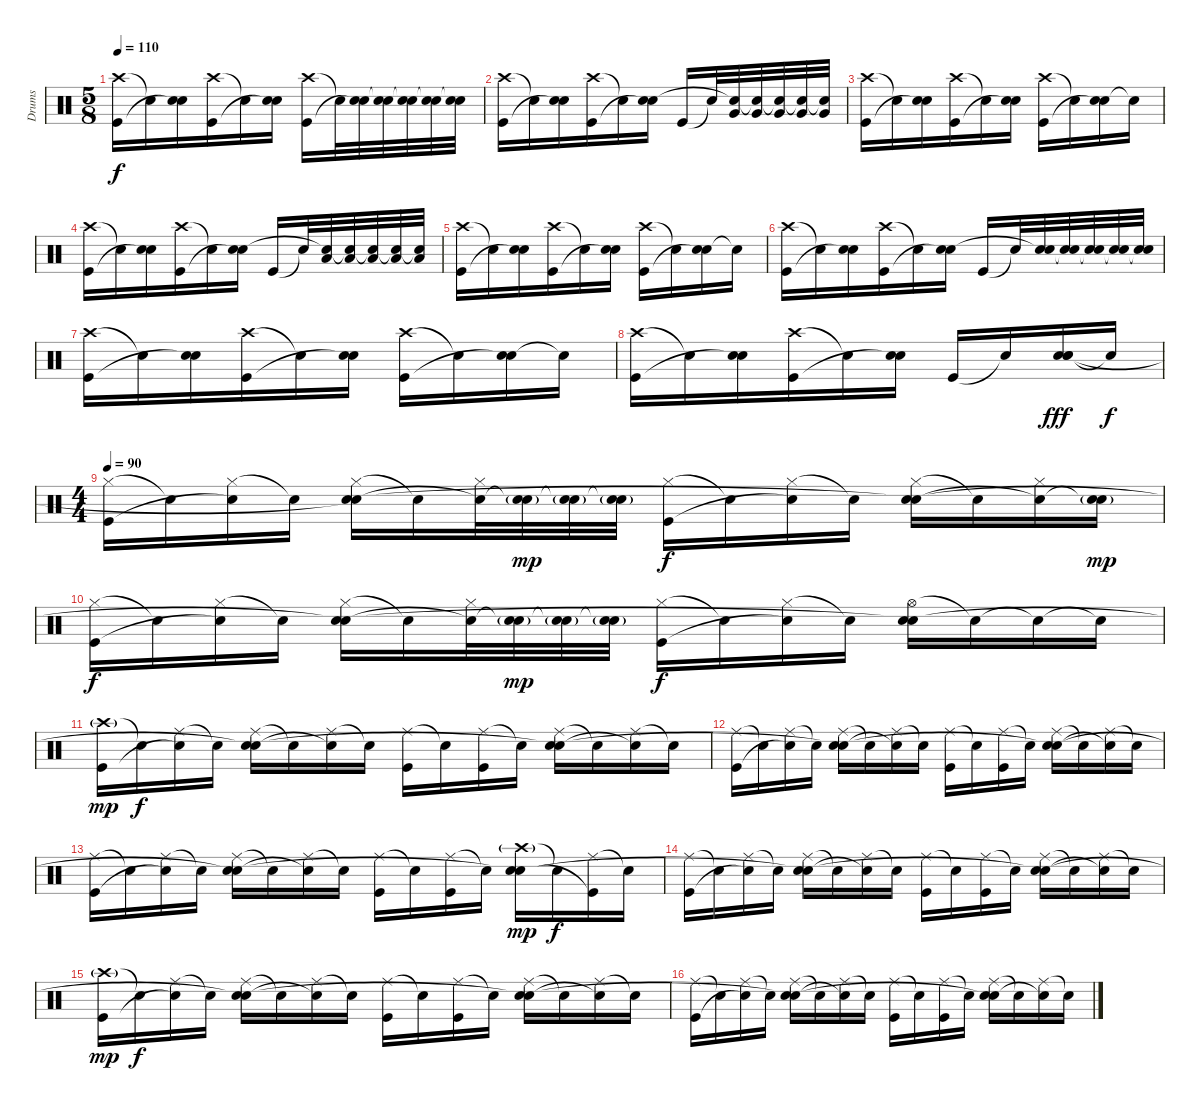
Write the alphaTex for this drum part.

\track ("Drums" "Drums") {instrument percussion}
\staff {score}
\articulation defaults
\ts (5 8)
\tempo 110
\clef neutral
\ks c
("Crash high (hit)" "Kick (hit)").16{dy f} "Snare (hit)"{t}.16 ("Electric Snare (hit)" "Snare (hit)"{t}).16 ("Crash high (hit)" "Kick (hit)").16 "Snare (hit)"{t}.16 ("Electric Snare (hit)" "Snare (hit)"{t}).16 ("Crash high (hit)" "Kick (hit)").16 "Snare (hit)"{t}.32 ("Electric Snare (hit)" "Snare (hit)"{t}).32 ("Electric Snare (hit)" "Snare (hit)"{t}).32 ("Electric Snare (hit)" "Snare (hit)"{t}).32 ("Electric Snare (hit)" "Snare (hit)"{t}).32 ("Electric Snare (hit)" "Snare (hit)"{t}).32 |
("Crash high (hit)" "Kick (hit)").16 "Snare (hit)"{t}.16 ("Electric Snare (hit)" "Snare (hit)"{t}).16 ("Crash high (hit)" "Kick (hit)").16 "Snare (hit)"{t}.16 ("Electric Snare (hit)" "Snare (hit)"{t}).16 "Kick (hit)".16 "Snare (hit)"{t}.32 ("Very Low Tom (hit)" "Snare (hit)"{t}).32 ("Very Low Tom (hit)" "Snare (hit)"{t}).32 ("Very Low Tom (hit)" "Snare (hit)"{t}).32 ("Very Low Tom (hit)" "Snare (hit)"{t}).32 ("Very Low Tom (hit)" "Snare (hit)"{t}).32 |
("Crash high (hit)" "Kick (hit)").16 "Snare (hit)"{t}.16 ("Electric Snare (hit)" "Snare (hit)"{t}).16 ("Crash high (hit)" "Kick (hit)").16 "Snare (hit)"{t}.16 ("Electric Snare (hit)" "Snare (hit)"{t}).16 ("Crash high (hit)" "Kick (hit)").16 "Snare (hit)"{t}.16 ("Electric Snare (hit)" "Snare (hit)"{t}).16 "Snare (hit)"{t}.16 |
("Crash high (hit)" "Kick (hit)").16 "Snare (hit)"{t}.16 ("Electric Snare (hit)" "Snare (hit)"{t}).16 ("Crash high (hit)" "Kick (hit)").16 "Snare (hit)"{t}.16 ("Electric Snare (hit)" "Snare (hit)"{t}).16 "Kick (hit)".16 "Snare (hit)"{t}.32 ("Low Tom (hit)" "Snare (hit)"{t}).32 ("Low Tom (hit)" "Snare (hit)"{t}).32 ("Low Tom (hit)" "Snare (hit)"{t}).32 ("Low Tom (hit)" "Snare (hit)"{t}).32 ("Low Tom (hit)" "Snare (hit)"{t}).32 |
("Crash high (hit)" "Kick (hit)").16 "Snare (hit)"{t}.16 ("Electric Snare (hit)" "Snare (hit)"{t}).16 ("Crash high (hit)" "Kick (hit)").16 "Snare (hit)"{t}.16 ("Electric Snare (hit)" "Snare (hit)"{t}).16 ("Crash high (hit)" "Kick (hit)").16 "Snare (hit)"{t}.16 ("Electric Snare (hit)" "Snare (hit)"{t}).16 "Snare (hit)"{t}.16 |
("Crash high (hit)" "Kick (hit)").16 "Snare (hit)"{t}.16 ("Electric Snare (hit)" "Snare (hit)"{t}).16 ("Crash high (hit)" "Kick (hit)").16 "Snare (hit)"{t}.16 ("Electric Snare (hit)" "Snare (hit)"{t}).16 "Kick (hit)".16 "Snare (hit)"{t}.32 ("Electric Snare (hit)" "Snare (hit)"{t}).32 ("Electric Snare (hit)" "Snare (hit)"{t}).32 ("Electric Snare (hit)" "Snare (hit)"{t}).32 ("Electric Snare (hit)" "Snare (hit)"{t}).32 ("Electric Snare (hit)" "Snare (hit)"{t}).32 |
("Crash high (hit)" "Kick (hit)").16 "Snare (hit)"{t}.16 ("Electric Snare (hit)" "Snare (hit)"{t}).16 ("Crash high (hit)" "Kick (hit)").16 "Snare (hit)"{t}.16 ("Electric Snare (hit)" "Snare (hit)"{t}).16 ("Crash high (hit)" "Kick (hit)").16 "Snare (hit)"{t}.16 ("Electric Snare (hit)" "Snare (hit)"{t}).16 "Snare (hit)"{t}.16 |
("Crash high (hit)" "Kick (hit)").16 "Snare (hit)"{t}.16 ("Electric Snare (hit)" "Snare (hit)"{t}).16 ("Crash high (hit)" "Kick (hit)").16 "Snare (hit)"{t}.16 ("Electric Snare (hit)" "Snare (hit)"{t}).16 "Kick (hit)".16 "Snare (hit)"{t}.16 ("Snare (hit) 2" "Electric Snare (hit)" "Snare (hit)").16{bd 480 dy fff} "Snare (hit)"{t}.16{dy f} |
\ts (4 4)
\tempo 90
("Hi-Hat (closed)" "Kick (hit)").16 "Snare (hit)"{t}.16 ("Hi-Hat (closed)" "Snare (hit)"{t}).16 "Snare (hit)"{t}.16 ("Hi-Hat (closed)" "Electric Snare (hit)" "Snare (hit)"{t}).16 "Snare (hit)"{t}.16 ("Hi-Hat (closed)" "Snare (hit)"{t}).32 ("Electric Snare (hit)"{g} "Snare (hit)"{t}).32{dy mp} ("Electric Snare (hit)"{g} "Snare (hit)"{t}).32 ("Electric Snare (hit)"{g} "Snare (hit)"{t}).32 ("Hi-Hat (closed)" "Kick (hit)").16{dy f} "Snare (hit)"{t}.16 ("Hi-Hat (closed)" "Snare (hit)"{t}).16 "Snare (hit)"{t}.16 ("Hi-Hat (closed)" "Electric Snare (hit)" "Snare (hit)"{t}).16 "Snare (hit)"{t}.16 ("Hi-Hat (closed)" "Snare (hit)"{t}).16 ("Electric Snare (hit)"{g} "Snare (hit)"{t}).16{dy mp} |
("Hi-Hat (closed)" "Kick (hit)").16{dy f} "Snare (hit)"{t}.16 ("Hi-Hat (closed)" "Snare (hit)"{t}).16 "Snare (hit)"{t}.16 ("Hi-Hat (closed)" "Electric Snare (hit)" "Snare (hit)"{t}).16 "Snare (hit)"{t}.16 ("Hi-Hat (closed)" "Snare (hit)"{t}).32 ("Electric Snare (hit)"{g} "Snare (hit)"{t}).32{dy mp} ("Electric Snare (hit)"{g} "Snare (hit)"{t}).32 ("Electric Snare (hit)"{g} "Snare (hit)"{t}).32 ("Hi-Hat (closed)" "Kick (hit)").16{dy f} "Snare (hit)"{t}.16 ("Hi-Hat (closed)" "Snare (hit)"{t}).16 "Snare (hit)"{t}.16 ("Hi-Hat (open)" "Electric Snare (hit)" "Snare (hit)"{t}).16 "Snare (hit)"{t}.16 "Snare (hit)"{t}.16 "Snare (hit)"{t}.16 |
("Crash high (hit)"{g} "Kick (hit)").16{dy mp} "Snare (hit)"{t}.16{dy f} ("Ride (middle)" "Snare (hit)"{t}).16 "Snare (hit)"{t}.16 ("Ride (middle)" "Electric Snare (hit)" "Snare (hit)"{t}).16 "Snare (hit)"{t}.16 ("Ride (middle)" "Snare (hit)"{t}).16 "Snare (hit)"{t}.16 ("Ride (middle)" "Kick (hit)").16 "Snare (hit)"{t}.16 ("Ride (middle)" "Kick (hit)").16 "Snare (hit)"{t}.16 ("Ride (middle)" "Electric Snare (hit)" "Snare (hit)"{t}).16 "Snare (hit)"{t}.16 ("Ride (middle)" "Snare (hit)"{t}).16 "Snare (hit)"{t}.16 |
("Ride (middle)" "Kick (hit)").16 "Snare (hit)"{t}.16 ("Ride (middle)" "Snare (hit)"{t}).16 "Snare (hit)"{t}.16 ("Ride (middle)" "Electric Snare (hit)" "Snare (hit)"{t}).16 "Snare (hit)"{t}.16 ("Ride (middle)" "Snare (hit)"{t}).16 "Snare (hit)"{t}.16 ("Ride (middle)" "Kick (hit)").16 "Snare (hit)"{t}.16 ("Ride (middle)" "Kick (hit)").16 "Snare (hit)"{t}.16 ("Ride (middle)" "Electric Snare (hit)" "Snare (hit)"{t}).16 "Snare (hit)"{t}.16 ("Ride (middle)" "Snare (hit)"{t}).16 "Snare (hit)"{t}.16 |
("Ride (middle)" "Kick (hit)").16 "Snare (hit)"{t}.16 ("Ride (middle)" "Snare (hit)"{t}).16 "Snare (hit)"{t}.16 ("Ride (middle)" "Electric Snare (hit)" "Snare (hit)"{t}).16 "Snare (hit)"{t}.16 ("Ride (middle)" "Snare (hit)"{t}).16 "Snare (hit)"{t}.16 ("Ride (middle)" "Kick (hit)").16 "Snare (hit)"{t}.16 ("Ride (middle)" "Kick (hit)").16 "Snare (hit)"{t}.16 ("Crash high (hit)"{g} "Electric Snare (hit)" "Snare (hit)"{t}).16{dy mp} "Snare (hit)"{t}.16{dy f} ("Ride (middle)" "Kick (hit)"{t}).16 "Snare (hit)"{t}.16 |
("Ride (middle)" "Kick (hit)").16 "Snare (hit)"{t}.16 ("Ride (middle)" "Snare (hit)"{t}).16 "Snare (hit)"{t}.16 ("Ride (middle)" "Electric Snare (hit)" "Snare (hit)"{t}).16 "Snare (hit)"{t}.16 ("Ride (middle)" "Snare (hit)"{t}).16 "Snare (hit)"{t}.16 ("Ride (middle)" "Kick (hit)").16 "Snare (hit)"{t}.16 ("Ride (middle)" "Kick (hit)").16 "Snare (hit)"{t}.16 ("Ride (middle)" "Electric Snare (hit)" "Snare (hit)"{t}).16 "Snare (hit)"{t}.16 ("Ride (middle)" "Snare (hit)"{t}).16 "Snare (hit)"{t}.16 |
("Crash high (hit)"{g} "Kick (hit)").16{dy mp} "Snare (hit)"{t}.16{dy f} ("Ride (middle)" "Snare (hit)"{t}).16 "Snare (hit)"{t}.16 ("Ride (middle)" "Electric Snare (hit)" "Snare (hit)"{t}).16 "Snare (hit)"{t}.16 ("Ride (middle)" "Snare (hit)"{t}).16 "Snare (hit)"{t}.16 ("Ride (middle)" "Kick (hit)").16 "Snare (hit)"{t}.16 ("Ride (middle)" "Kick (hit)").16 "Snare (hit)"{t}.16 ("Ride (middle)" "Electric Snare (hit)" "Snare (hit)"{t}).16 "Snare (hit)"{t}.16 ("Ride (middle)" "Snare (hit)"{t}).16 "Snare (hit)"{t}.16 |
("Ride (middle)" "Kick (hit)").16 "Snare (hit)"{t}.16 ("Ride (middle)" "Snare (hit)"{t}).16 "Snare (hit)"{t}.16 ("Ride (middle)" "Electric Snare (hit)" "Snare (hit)"{t}).16 "Snare (hit)"{t}.16 ("Ride (middle)" "Snare (hit)"{t}).16 "Snare (hit)"{t}.16 ("Ride (middle)" "Kick (hit)").16 "Snare (hit)"{t}.16 ("Ride (middle)" "Kick (hit)").16 "Snare (hit)"{t}.16 ("Ride (middle)" "Electric Snare (hit)" "Snare (hit)"{t}).16 "Snare (hit)"{t}.16 ("Ride (middle)" "Snare (hit)"{t}).16 "Snare (hit)"{t}.16
